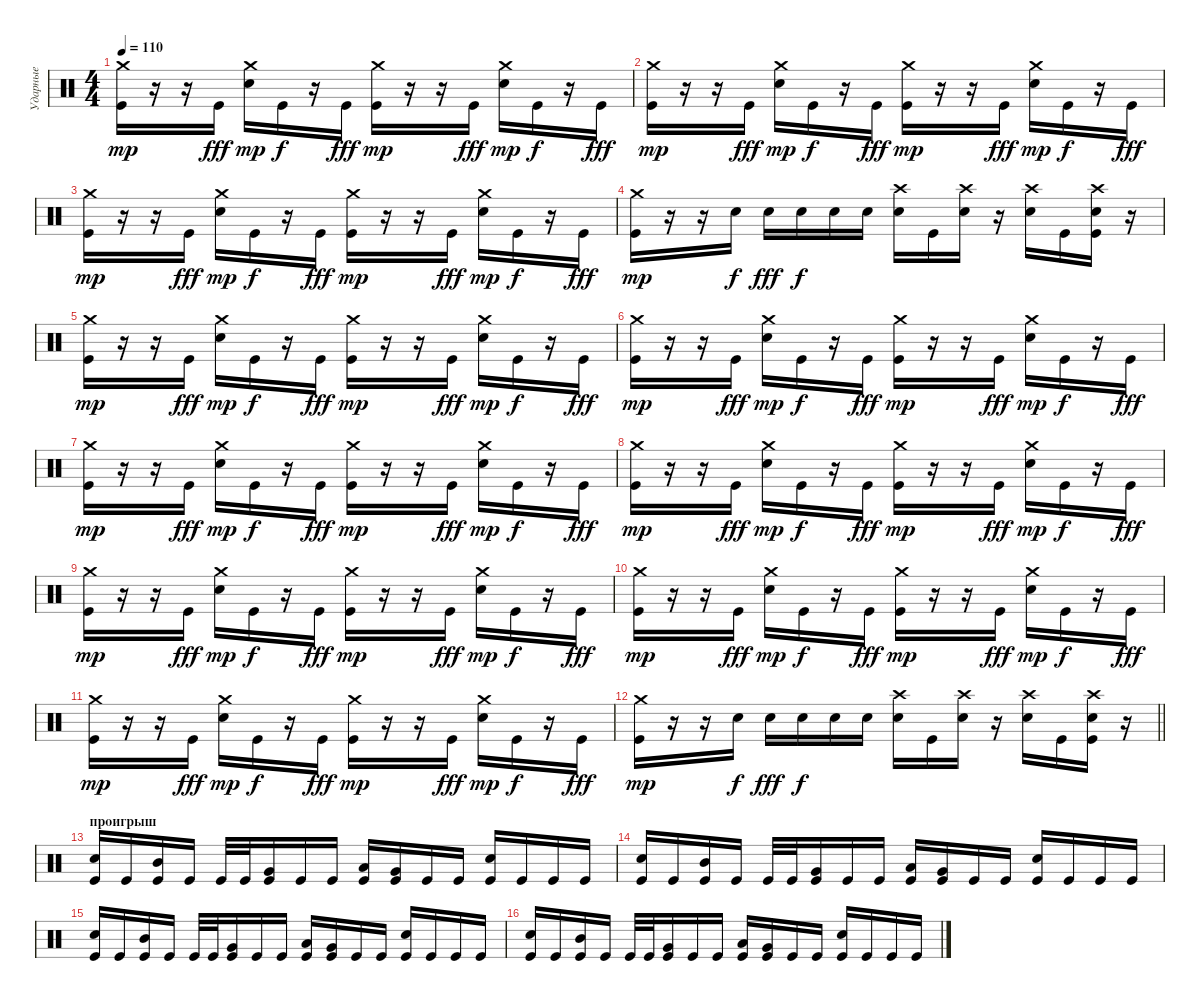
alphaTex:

\track ("Ударные" "Ударные") {instrument percussion}
\staff {score}
\articulation defaults
\ts (4 4)
\tempo 110
\clef neutral
\ks c
("Kick (hit)" "Crash medium (hit)").16{dy mp} r.16 r.16 "Kick (hit)".16{dy fff} ("Electric Snare (hit)" "Crash medium (hit)").16{dy mp} "Kick (hit)".16{dy f} r.16 "Kick (hit)".16{dy fff} ("Kick (hit)" "Crash medium (hit)").16{dy mp} r.16 r.16 "Kick (hit)".16{dy fff} ("Electric Snare (hit)" "Crash medium (hit)").16{dy mp} "Kick (hit)".16{dy f} r.16 "Kick (hit)".16{dy fff} |
("Kick (hit)" "Crash medium (hit)").16{dy mp} r.16 r.16 "Kick (hit)".16{dy fff} ("Electric Snare (hit)" "Crash medium (hit)").16{dy mp} "Kick (hit)".16{dy f} r.16 "Kick (hit)".16{dy fff} ("Kick (hit)" "Crash medium (hit)").16{dy mp} r.16 r.16 "Kick (hit)".16{dy fff} ("Electric Snare (hit)" "Crash medium (hit)").16{dy mp} "Kick (hit)".16{dy f} r.16 "Kick (hit)".16{dy fff} |
("Kick (hit)" "Crash medium (hit)").16{dy mp} r.16 r.16 "Kick (hit)".16{dy fff} ("Electric Snare (hit)" "Crash medium (hit)").16{dy mp} "Kick (hit)".16{dy f} r.16 "Kick (hit)".16{dy fff} ("Kick (hit)" "Crash medium (hit)").16{dy mp} r.16 r.16 "Kick (hit)".16{dy fff} ("Electric Snare (hit)" "Crash medium (hit)").16{dy mp} "Kick (hit)".16{dy f} r.16 "Kick (hit)".16{dy fff} |
("Kick (hit)" "Crash medium (hit)").16{dy mp} r.16 r.16 "Electric Snare (hit)".16{dy f} "Electric Snare (hit)".16{dy fff} "Electric Snare (hit)".16{dy f} "Electric Snare (hit)".16 "Electric Snare (hit)".16 ("Electric Snare (hit)" "Crash high (hit)").16 "Kick (hit)".16 ("Electric Snare (hit)" "Crash high (hit)").16 r.16 ("Electric Snare (hit)" "Crash high (hit)").16 "Kick (hit)".16 ("Kick (hit)" "Electric Snare (hit)" "Crash high (hit)").16 r.16 |
("Kick (hit)" "Crash medium (hit)").16{dy mp} r.16 r.16 "Kick (hit)".16{dy fff} ("Electric Snare (hit)" "Crash medium (hit)").16{dy mp} "Kick (hit)".16{dy f} r.16 "Kick (hit)".16{dy fff} ("Kick (hit)" "Crash medium (hit)").16{dy mp} r.16 r.16 "Kick (hit)".16{dy fff} ("Electric Snare (hit)" "Crash medium (hit)").16{dy mp} "Kick (hit)".16{dy f} r.16 "Kick (hit)".16{dy fff} |
("Kick (hit)" "Crash medium (hit)").16{dy mp} r.16 r.16 "Kick (hit)".16{dy fff} ("Electric Snare (hit)" "Crash medium (hit)").16{dy mp} "Kick (hit)".16{dy f} r.16 "Kick (hit)".16{dy fff} ("Kick (hit)" "Crash medium (hit)").16{dy mp} r.16 r.16 "Kick (hit)".16{dy fff} ("Electric Snare (hit)" "Crash medium (hit)").16{dy mp} "Kick (hit)".16{dy f} r.16 "Kick (hit)".16{dy fff} |
("Kick (hit)" "Crash medium (hit)").16{dy mp} r.16 r.16 "Kick (hit)".16{dy fff} ("Electric Snare (hit)" "Crash medium (hit)").16{dy mp} "Kick (hit)".16{dy f} r.16 "Kick (hit)".16{dy fff} ("Kick (hit)" "Crash medium (hit)").16{dy mp} r.16 r.16 "Kick (hit)".16{dy fff} ("Electric Snare (hit)" "Crash medium (hit)").16{dy mp} "Kick (hit)".16{dy f} r.16 "Kick (hit)".16{dy fff} |
("Kick (hit)" "Crash medium (hit)").16{dy mp} r.16 r.16 "Kick (hit)".16{dy fff} ("Electric Snare (hit)" "Crash medium (hit)").16{dy mp} "Kick (hit)".16{dy f} r.16 "Kick (hit)".16{dy fff} ("Kick (hit)" "Crash medium (hit)").16{dy mp} r.16 r.16 "Kick (hit)".16{dy fff} ("Electric Snare (hit)" "Crash medium (hit)").16{dy mp} "Kick (hit)".16{dy f} r.16 "Kick (hit)".16{dy fff} |
("Kick (hit)" "Crash medium (hit)").16{dy mp} r.16 r.16 "Kick (hit)".16{dy fff} ("Electric Snare (hit)" "Crash medium (hit)").16{dy mp} "Kick (hit)".16{dy f} r.16 "Kick (hit)".16{dy fff} ("Kick (hit)" "Crash medium (hit)").16{dy mp} r.16 r.16 "Kick (hit)".16{dy fff} ("Electric Snare (hit)" "Crash medium (hit)").16{dy mp} "Kick (hit)".16{dy f} r.16 "Kick (hit)".16{dy fff} |
("Kick (hit)" "Crash medium (hit)").16{dy mp} r.16 r.16 "Kick (hit)".16{dy fff} ("Electric Snare (hit)" "Crash medium (hit)").16{dy mp} "Kick (hit)".16{dy f} r.16 "Kick (hit)".16{dy fff} ("Kick (hit)" "Crash medium (hit)").16{dy mp} r.16 r.16 "Kick (hit)".16{dy fff} ("Electric Snare (hit)" "Crash medium (hit)").16{dy mp} "Kick (hit)".16{dy f} r.16 "Kick (hit)".16{dy fff} |
("Kick (hit)" "Crash medium (hit)").16{dy mp} r.16 r.16 "Kick (hit)".16{dy fff} ("Electric Snare (hit)" "Crash medium (hit)").16{dy mp} "Kick (hit)".16{dy f} r.16 "Kick (hit)".16{dy fff} ("Kick (hit)" "Crash medium (hit)").16{dy mp} r.16 r.16 "Kick (hit)".16{dy fff} ("Electric Snare (hit)" "Crash medium (hit)").16{dy mp} "Kick (hit)".16{dy f} r.16 "Kick (hit)".16{dy fff} |
\barLineRight lightlight
("Kick (hit)" "Crash medium (hit)").16{dy mp} r.16 r.16 "Electric Snare (hit)".16{dy f} "Electric Snare (hit)".16{dy fff} "Electric Snare (hit)".16{dy f} "Electric Snare (hit)".16 "Electric Snare (hit)".16 ("Electric Snare (hit)" "Crash high (hit)").16 "Kick (hit)".16 ("Electric Snare (hit)" "Crash high (hit)").16 r.16 ("Electric Snare (hit)" "Crash high (hit)").16 "Kick (hit)".16 ("Kick (hit)" "Electric Snare (hit)" "Crash high (hit)").16 r.16 |
\section ("" "проигрыш")
("Electric Snare (hit)" "Kick (hit)").16 "Kick (hit)".16 ("Mid Tom (hit)" "Kick (hit)").16 "Kick (hit)".16 "Kick (hit)".32 "Kick (hit)".32 ("Very Low Tom (hit)" "Kick (hit)").16 "Kick (hit)".16 "Kick (hit)".16 ("Low Tom (hit)" "Kick (hit)").16 ("Very Low Tom (hit)" "Kick (hit)").16 "Kick (hit)".16 "Kick (hit)".16 ("Electric Snare (hit)" "Kick (hit)").16 "Kick (hit)".16 "Kick (hit)".16 "Kick (hit)".16 |
("Electric Snare (hit)" "Kick (hit)").16 "Kick (hit)".16 ("Mid Tom (hit)" "Kick (hit)").16 "Kick (hit)".16 "Kick (hit)".32 "Kick (hit)".32 ("Very Low Tom (hit)" "Kick (hit)").16 "Kick (hit)".16 "Kick (hit)".16 ("Low Tom (hit)" "Kick (hit)").16 ("Very Low Tom (hit)" "Kick (hit)").16 "Kick (hit)".16 "Kick (hit)".16 ("Electric Snare (hit)" "Kick (hit)").16 "Kick (hit)".16 "Kick (hit)".16 "Kick (hit)".16 |
("Electric Snare (hit)" "Kick (hit)").16 "Kick (hit)".16 ("Mid Tom (hit)" "Kick (hit)").16 "Kick (hit)".16 "Kick (hit)".32 "Kick (hit)".32 ("Very Low Tom (hit)" "Kick (hit)").16 "Kick (hit)".16 "Kick (hit)".16 ("Low Tom (hit)" "Kick (hit)").16 ("Very Low Tom (hit)" "Kick (hit)").16 "Kick (hit)".16 "Kick (hit)".16 ("Electric Snare (hit)" "Kick (hit)").16 "Kick (hit)".16 "Kick (hit)".16 "Kick (hit)".16 |
("Electric Snare (hit)" "Kick (hit)").16 "Kick (hit)".16 ("Mid Tom (hit)" "Kick (hit)").16 "Kick (hit)".16 "Kick (hit)".32 "Kick (hit)".32 ("Very Low Tom (hit)" "Kick (hit)").16 "Kick (hit)".16 "Kick (hit)".16 ("Low Tom (hit)" "Kick (hit)").16 ("Very Low Tom (hit)" "Kick (hit)").16 "Kick (hit)".16 "Kick (hit)".16 ("Electric Snare (hit)" "Kick (hit)").16 "Kick (hit)".16 "Kick (hit)".16 "Kick (hit)".16
